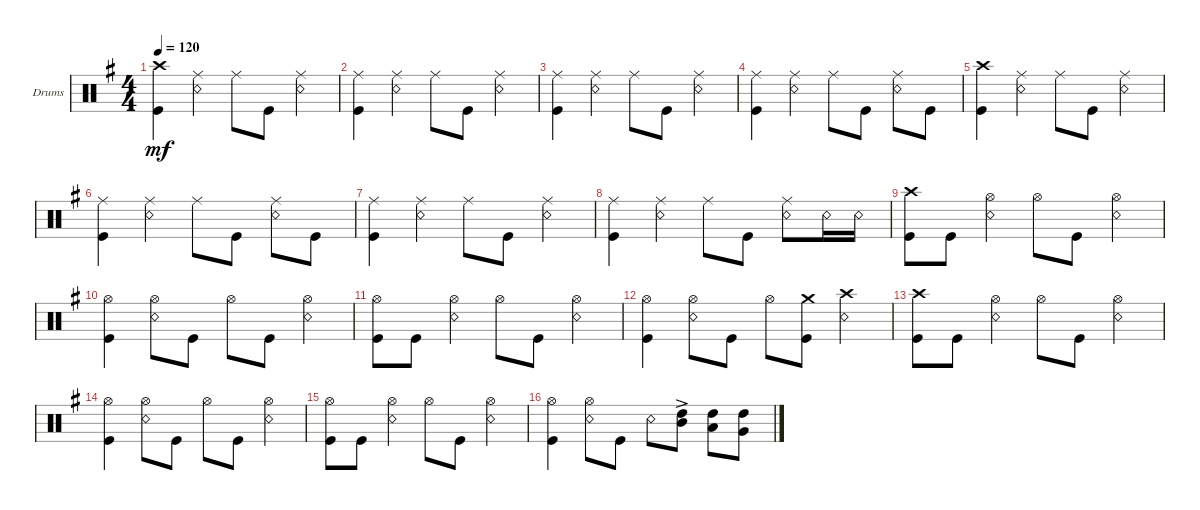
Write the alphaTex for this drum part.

\defaultSystemsLayout 4
\bracketExtendMode groupsimilarinstruments
\firstSystemTrackNameOrientation horizontal
\otherSystemsTrackNameOrientation horizontal
\track ("Drumkit" "Drums") {instrument percussion}
\staff {score}
\articulation defaults
\ts (4 4)
\tempo 120
\clef neutral
\ks eminor
("Kick (hit)" "Crash high (hit)").4{dy mf} ("Snare (rim shot)" "Ride (middle)").4 "Ride (middle)".8 "Kick (hit)".8 ("Snare (rim shot)" "Ride (middle)").4 |
("Kick (hit)" "Ride (middle)").4 ("Snare (rim shot)" "Ride (middle)").4 "Ride (middle)".8 "Kick (hit)".8 ("Snare (rim shot)" "Ride (middle)").4 |
("Kick (hit)" "Ride (middle)").4 ("Snare (rim shot)" "Ride (middle)").4 "Ride (middle)".8 "Kick (hit)".8 ("Snare (rim shot)" "Ride (middle)").4 |
("Kick (hit)" "Ride (middle)").4 ("Snare (rim shot)" "Ride (middle)").4 "Ride (middle)".8 "Kick (hit)".8 ("Snare (rim shot)" "Ride (middle)").8 "Kick (hit)".8 |
("Kick (hit)" "Crash high (hit)").4 ("Snare (rim shot)" "Ride (middle)").4 "Ride (middle)".8 "Kick (hit)".8 ("Ride (middle)" "Snare (rim shot)").4 |
("Kick (hit)" "Ride (middle)").4 ("Snare (rim shot)" "Ride (middle)").4 "Ride (middle)".8 "Kick (hit)".8 ("Ride (middle)" "Snare (rim shot)").8 "Kick (hit)".8 |
("Kick (hit)" "Ride (middle)").4 ("Snare (rim shot)" "Ride (middle)").4 "Ride (middle)".8 "Kick (hit)".8 ("Ride (middle)" "Snare (rim shot)").4 |
("Kick (hit)" "Ride (middle)").4 ("Snare (rim shot)" "Ride (middle)").4 "Ride (middle)".8 "Kick (hit)".8 ("Ride (middle)" "Snare (rim shot)").8 "Snare (rim shot)".16 "Snare (rim shot)".16 |
("Kick (hit)" "Crash high (hit)").8 "Kick (hit)".8 ("Hi-Hat (open)" "Snare (rim shot)").4 "Hi-Hat (open)".8 "Kick (hit)".8 ("Hi-Hat (open)" "Snare (rim shot)").4 |
("Kick (hit)" "Hi-Hat (open)").4 ("Hi-Hat (open)" "Snare (rim shot)").8 "Kick (hit)".8 "Hi-Hat (open)".8 "Kick (hit)".8 ("Hi-Hat (open)" "Snare (rim shot)").4 |
("Kick (hit)" "Hi-Hat (open)").8 "Kick (hit)".8 ("Hi-Hat (open)" "Snare (rim shot)").4 "Hi-Hat (open)".8 "Kick (hit)".8 ("Hi-Hat (open)" "Snare (rim shot)").4 |
("Kick (hit)" "Hi-Hat (open)").4 ("Hi-Hat (open)" "Snare (rim shot)").8 "Kick (hit)".8 "Hi-Hat (open)".8 ("Kick (hit)" "Crash medium (hit)").8 ("Snare (rim shot)" "Crash high (hit)").4 |
("Kick (hit)" "Crash high (hit)").8 "Kick (hit)".8 ("Hi-Hat (open)" "Snare (rim shot)").4 "Hi-Hat (open)".8 "Kick (hit)".8 ("Hi-Hat (open)" "Snare (rim shot)").4 |
("Kick (hit)" "Hi-Hat (open)").4 ("Hi-Hat (open)" "Snare (rim shot)").8 "Kick (hit)".8 "Hi-Hat (open)".8 "Kick (hit)".8 ("Hi-Hat (open)" "Snare (rim shot)").4 |
("Kick (hit)" "Hi-Hat (open)").8 "Kick (hit)".8 ("Hi-Hat (open)" "Snare (rim shot)").4 "Hi-Hat (open)".8 "Kick (hit)".8 ("Hi-Hat (open)" "Snare (rim shot)").4 |
("Kick (hit)" "Hi-Hat (open)").4 ("Hi-Hat (open)" "Snare (rim shot)").8 "Kick (hit)".8 "Snare (rim shot)".8 ("High Tom (hit)"{ac} "Mid Tom (hit)").8 ("High Tom (hit)" "Low Tom (hit)").8 ("High Tom (hit)" "Very Low Tom (hit)").8
